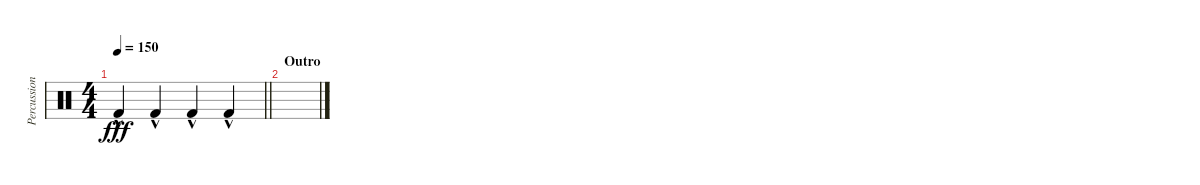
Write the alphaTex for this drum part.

\track ("Percussion" "Percussion") {instrument percussion}
\staff {score}
\articulation defaults
\ts (4 4)
\tempo 150
\clef neutral
\barLineRight lightlight
\ks c "Kick (hit) 2"{hac}.4{dy fff} "Kick (hit) 2"{hac}.4 "Kick (hit) 2"{hac}.4 "Kick (hit) 2"{hac}.4
|
\section ("" "Outro")
